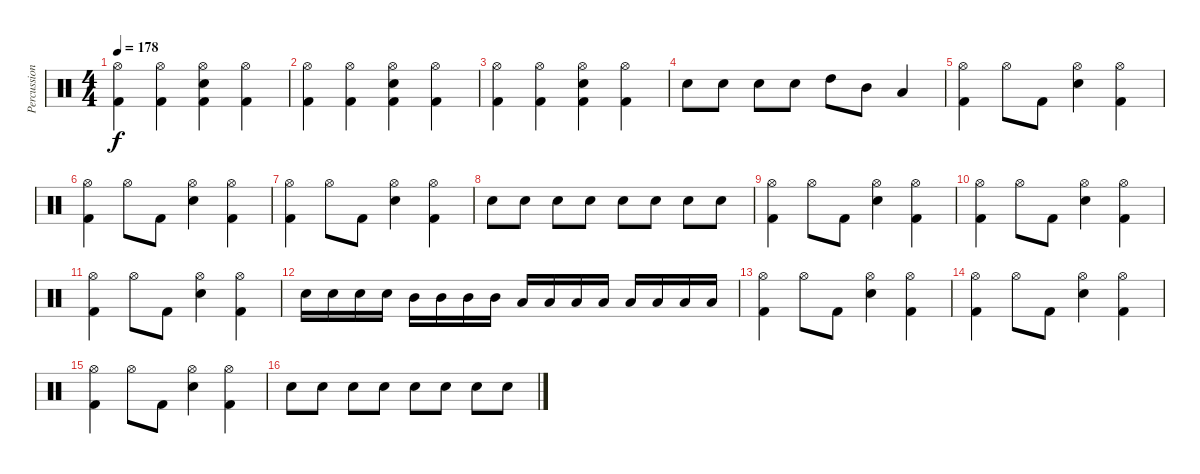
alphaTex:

\track ("Percussion" "Percussion") {instrument percussion}
\staff {score}
\articulation defaults
\ts (4 4)
\tempo 178
\clef neutral
\ks c
("Hi-Hat (open)" "Kick (hit) 2").4{dy f} ("Hi-Hat (open)" "Kick (hit) 2").4 ("Hi-Hat (open)" "Electric Snare (hit)" "Kick (hit) 2").4 ("Hi-Hat (open)" "Kick (hit) 2").4 |
("Hi-Hat (open)" "Kick (hit) 2").4 ("Hi-Hat (open)" "Kick (hit) 2").4 ("Hi-Hat (open)" "Electric Snare (hit)" "Kick (hit) 2").4 ("Hi-Hat (open)" "Kick (hit) 2").4 |
("Hi-Hat (open)" "Kick (hit) 2").4 ("Hi-Hat (open)" "Kick (hit) 2").4 ("Hi-Hat (open)" "Electric Snare (hit)" "Kick (hit) 2").4 ("Hi-Hat (open)" "Kick (hit) 2").4 |
"Electric Snare (hit)".8 "Electric Snare (hit)".8 "Electric Snare (hit)".8 "Electric Snare (hit)".8 "High Tom (hit)".8 "Mid Tom (hit)".8 "Low Tom (hit)".4 |
("Hi-Hat (open)" "Kick (hit) 2").4 "Hi-Hat (open)".8 "Kick (hit) 2".8 ("Hi-Hat (open)" "Electric Snare (hit)").4 ("Hi-Hat (open)" "Kick (hit) 2").4 |
("Hi-Hat (open)" "Kick (hit) 2").4 "Hi-Hat (open)".8 "Kick (hit) 2".8 ("Hi-Hat (open)" "Electric Snare (hit)").4 ("Hi-Hat (open)" "Kick (hit) 2").4 |
("Hi-Hat (open)" "Kick (hit) 2").4 "Hi-Hat (open)".8 "Kick (hit) 2".8 ("Hi-Hat (open)" "Electric Snare (hit)").4 ("Hi-Hat (open)" "Kick (hit) 2").4 |
"Electric Snare (hit)".8 "Electric Snare (hit)".8 "Electric Snare (hit)".8 "Electric Snare (hit)".8 "Electric Snare (hit)".8 "Electric Snare (hit)".8 "Electric Snare (hit)".8 "Electric Snare (hit)".8 |
("Hi-Hat (open)" "Kick (hit) 2").4 "Hi-Hat (open)".8 "Kick (hit) 2".8 ("Hi-Hat (open)" "Electric Snare (hit)").4 ("Hi-Hat (open)" "Kick (hit) 2").4 |
("Hi-Hat (open)" "Kick (hit) 2").4 "Hi-Hat (open)".8 "Kick (hit) 2".8 ("Hi-Hat (open)" "Electric Snare (hit)").4 ("Hi-Hat (open)" "Kick (hit) 2").4 |
("Hi-Hat (open)" "Kick (hit) 2").4 "Hi-Hat (open)".8 "Kick (hit) 2".8 ("Hi-Hat (open)" "Electric Snare (hit)").4 ("Hi-Hat (open)" "Kick (hit) 2").4 |
"Electric Snare (hit)".16 "Electric Snare (hit)".16 "Electric Snare (hit)".16 "Electric Snare (hit)".16 "Mid Tom (hit)".16 "Mid Tom (hit)".16 "Mid Tom (hit)".16 "Mid Tom (hit)".16 "Low Tom (hit)".16 "Low Tom (hit)".16 "Low Tom (hit)".16 "Low Tom (hit)".16 "Low Floor Tom (hit)".16 "Low Floor Tom (hit)".16 "Low Floor Tom (hit)".16 "Low Floor Tom (hit)".16 |
("Hi-Hat (open)" "Kick (hit) 2").4 "Hi-Hat (open)".8 "Kick (hit) 2".8 ("Hi-Hat (open)" "Electric Snare (hit)").4 ("Hi-Hat (open)" "Kick (hit) 2").4 |
("Hi-Hat (open)" "Kick (hit) 2").4 "Hi-Hat (open)".8 "Kick (hit) 2".8 ("Hi-Hat (open)" "Electric Snare (hit)").4 ("Hi-Hat (open)" "Kick (hit) 2").4 |
("Hi-Hat (open)" "Kick (hit) 2").4 "Hi-Hat (open)".8 "Kick (hit) 2".8 ("Hi-Hat (open)" "Electric Snare (hit)").4 ("Hi-Hat (open)" "Kick (hit) 2").4 |
"Electric Snare (hit)".8 "Electric Snare (hit)".8 "Electric Snare (hit)".8 "Electric Snare (hit)".8 "Electric Snare (hit)".8 "Electric Snare (hit)".8 "Electric Snare (hit)".8 "Electric Snare (hit)".8
